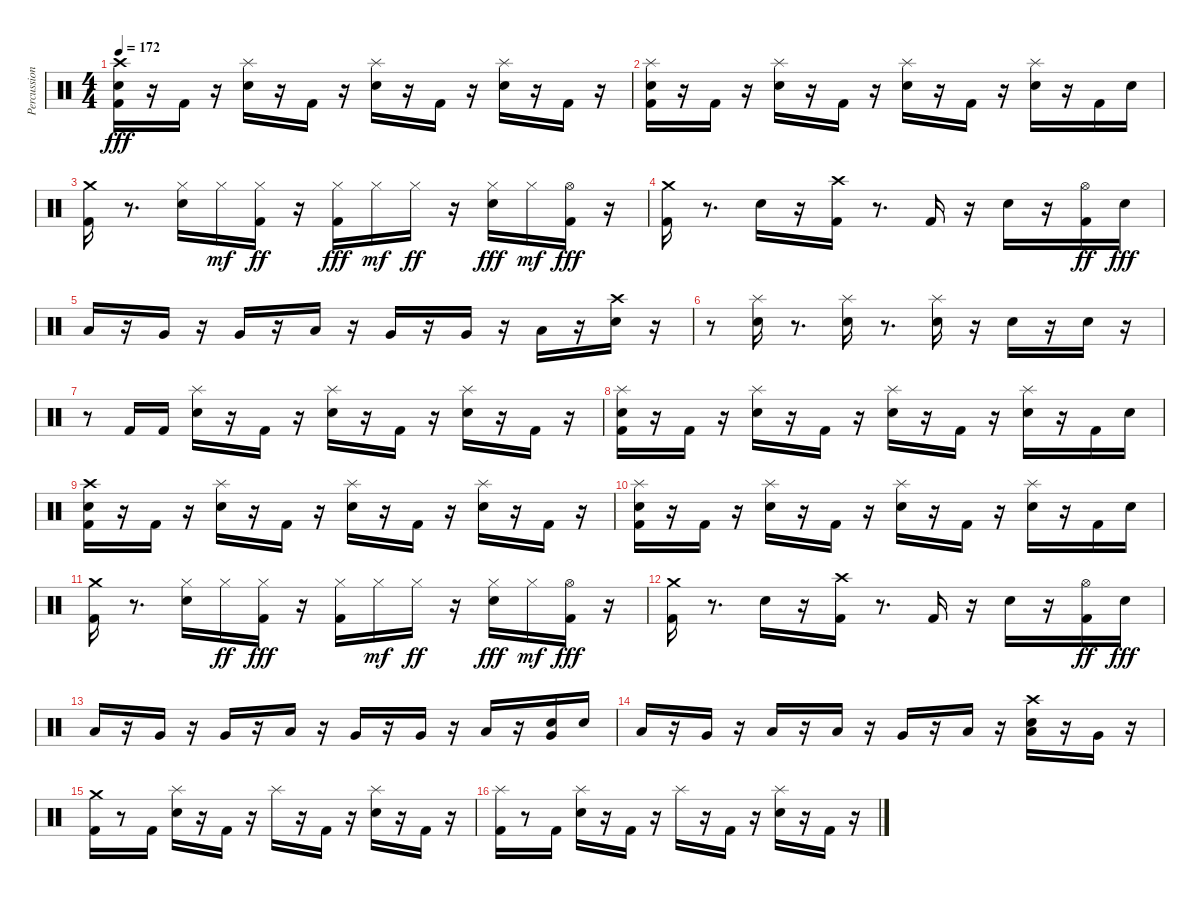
\track ("Percussion" "Percussion") {instrument percussion}
\staff {score}
\articulation defaults
\ts (4 4)
\tempo 172
\clef neutral
\ks c
("Crash high (hit)" "Kick (hit) 2" "Snare (hit) 2").16{dy fff} r.16 "Kick (hit) 2".16 r.16 ("Snare (hit) 2" "Splash (hit)").16 r.16 "Kick (hit) 2".16 r.16 ("Snare (hit) 2" "Splash (hit)").16 r.16 "Kick (hit) 2".16 r.16 ("Snare (hit) 2" "Splash (hit)").16 r.16 "Kick (hit) 2".16 r.16 |
("Snare (hit) 2" "Kick (hit) 2" "Splash (hit)").16 r.16 "Kick (hit) 2".16 r.16 ("Splash (hit)" "Snare (hit) 2").16 r.16 "Kick (hit) 2".16 r.16 ("Snare (hit) 2" "Splash (hit)").16 r.16 "Kick (hit) 2".16 r.16 ("Snare (hit) 2" "Splash (hit)").16 r.16 "Kick (hit) 2".16 "Snare (hit) 2".16 |
("Kick (hit) 2" "Crash medium (hit)").16 r.8{d} ("Snare (hit) 2" "Hi-Hat (closed)").16 "Hi-Hat (closed)".16{dy mf} ("Kick (hit) 2" "Hi-Hat (closed)").16{dy ff} r.16 ("Hi-Hat (closed)" "Kick (hit) 2").16{dy fff} "Hi-Hat (closed)".16{dy mf} "Hi-Hat (closed)".16{dy ff} r.16 ("Snare (hit) 2" "Hi-Hat (closed)").16{dy fff} "Hi-Hat (closed)".16{dy mf} ("Hi-Hat (open)" "Kick (hit) 2").16{dy fff} r.16 |
("Kick (hit) 2" "Crash medium (hit)").16 r.8{d} "Snare (hit) 2".16 r.16 ("Kick (hit) 2" "Crash high (hit)").16 r.8{d} "Kick (hit) 2".16 r.16 "Snare (hit) 2".16 r.16 ("Kick (hit) 2" "Hi-Hat (open)").16{dy ff} "Snare (hit) 2".16{dy fff} |
"Low Tom (hit)".16 r.16 "Very Low Tom (hit)".16 r.16 "Very Low Tom (hit)".16 r.16 "Low Tom (hit)".16 r.16 "Very Low Tom (hit)".16 r.16 "Very Low Tom (hit)".16 r.16 "Low Tom (hit)".16 r.16 ("Crash high (hit)" "Snare (hit) 2").16 r.16 |
r.8 ("Splash (hit)" "Snare (hit) 2").16 r.8{d} ("Splash (hit)" "Snare (hit) 2").16 r.8{d} ("Snare (hit) 2" "Splash (hit)").16 r.16 "Snare (hit) 2".16 r.16 "Snare (hit) 2".16 r.16 |
r.8 "Kick (hit) 2".16 "Kick (hit) 2".16 ("Snare (hit) 2" "Splash (hit)").16 r.16 "Kick (hit) 2".16 r.16 ("Splash (hit)" "Snare (hit) 2").16 r.16 "Kick (hit) 2".16 r.16 ("Snare (hit) 2" "Splash (hit)").16 r.16 "Kick (hit) 2".16 r.16 |
("Snare (hit) 2" "Kick (hit) 2" "Splash (hit)").16 r.16 "Kick (hit) 2".16 r.16 ("Snare (hit) 2" "Splash (hit)").16 r.16 "Kick (hit) 2".16 r.16 ("Snare (hit) 2" "Splash (hit)").16 r.16 "Kick (hit) 2".16 r.16 ("Snare (hit) 2" "Splash (hit)").16 r.16 "Kick (hit) 2".16 "Snare (hit) 2".16 |
("Crash high (hit)" "Kick (hit) 2" "Snare (hit) 2").16 r.16 "Kick (hit) 2".16 r.16 ("Snare (hit) 2" "Splash (hit)").16 r.16 "Kick (hit) 2".16 r.16 ("Snare (hit) 2" "Splash (hit)").16 r.16 "Kick (hit) 2".16 r.16 ("Splash (hit)" "Snare (hit) 2").16 r.16 "Kick (hit) 2".16 r.16 |
("Snare (hit) 2" "Kick (hit) 2" "Splash (hit)").16 r.16 "Kick (hit) 2".16 r.16 ("Splash (hit)" "Snare (hit) 2").16 r.16 "Kick (hit) 2".16 r.16 ("Splash (hit)" "Snare (hit) 2").16 r.16 "Kick (hit) 2".16 r.16 ("Snare (hit) 2" "Splash (hit)").16 r.16 "Kick (hit) 2".16 "Snare (hit) 2".16 |
("Crash medium (hit)" "Kick (hit) 2").16 r.8{d} ("Hi-Hat (closed)" "Snare (hit) 2").16 "Hi-Hat (closed)".16{dy ff} ("Hi-Hat (closed)" "Kick (hit) 2").16{dy fff} r.16 ("Kick (hit) 2" "Hi-Hat (closed)").16 "Hi-Hat (closed)".16{dy mf} "Hi-Hat (closed)".16{dy ff} r.16 ("Snare (hit) 2" "Hi-Hat (closed)").16{dy fff} "Hi-Hat (closed)".16{dy mf} ("Hi-Hat (open)" "Kick (hit) 2").16{dy fff} r.16 |
("Crash medium (hit)" "Kick (hit) 2").16 r.8{d} "Snare (hit) 2".16 r.16 ("Kick (hit) 2" "Crash high (hit)").16 r.8{d} "Kick (hit) 2".16 r.16 "Snare (hit) 2".16 r.16 ("Kick (hit) 2" "Hi-Hat (open)").16{dy ff} "Snare (hit) 2".16{dy fff} |
"Low Tom (hit)".16 r.16 "Very Low Tom (hit)".16 r.16 "Very Low Tom (hit)".16 r.16 "Low Tom (hit)".16 r.16 "Very Low Tom (hit)".16 r.16 "Very Low Tom (hit)".16 r.16 "Low Tom (hit)".16 r.16 ("Very Low Tom (hit)" "Snare (hit) 2").16 "Snare (hit) 2".16 |
"Low Tom (hit)".16 r.16 "Very Low Tom (hit)".16 r.16 "Low Floor Tom (hit)".16 r.16 "Low Tom (hit)".16 r.16 "Very Low Tom (hit)".16 r.16 "Low Floor Tom (hit)".16 r.16 ("Low Tom (hit)" "Snare (hit) 2" "Crash high (hit)").16 r.16 "Very Low Tom (hit)".16 r.16 |
("Kick (hit) 2" "Crash medium (hit)").16 r.8 "Kick (hit) 2".16 ("Splash (hit)" "Snare (hit) 2").16 r.16 "Kick (hit) 2".16 r.16 "Splash (hit)".16 r.16 "Kick (hit) 2".16 r.16 ("Snare (hit) 2" "Splash (hit)").16 r.16 "Kick (hit) 2".16 r.16 |
("Kick (hit) 2" "Splash (hit)").16 r.8 "Kick (hit) 2".16 ("Snare (hit) 2" "Splash (hit)").16 r.16 "Kick (hit) 2".16 r.16 "Splash (hit)".16 r.16 "Kick (hit) 2".16 r.16 ("Snare (hit) 2" "Splash (hit)").16 r.16 "Kick (hit) 2".16 r.16
